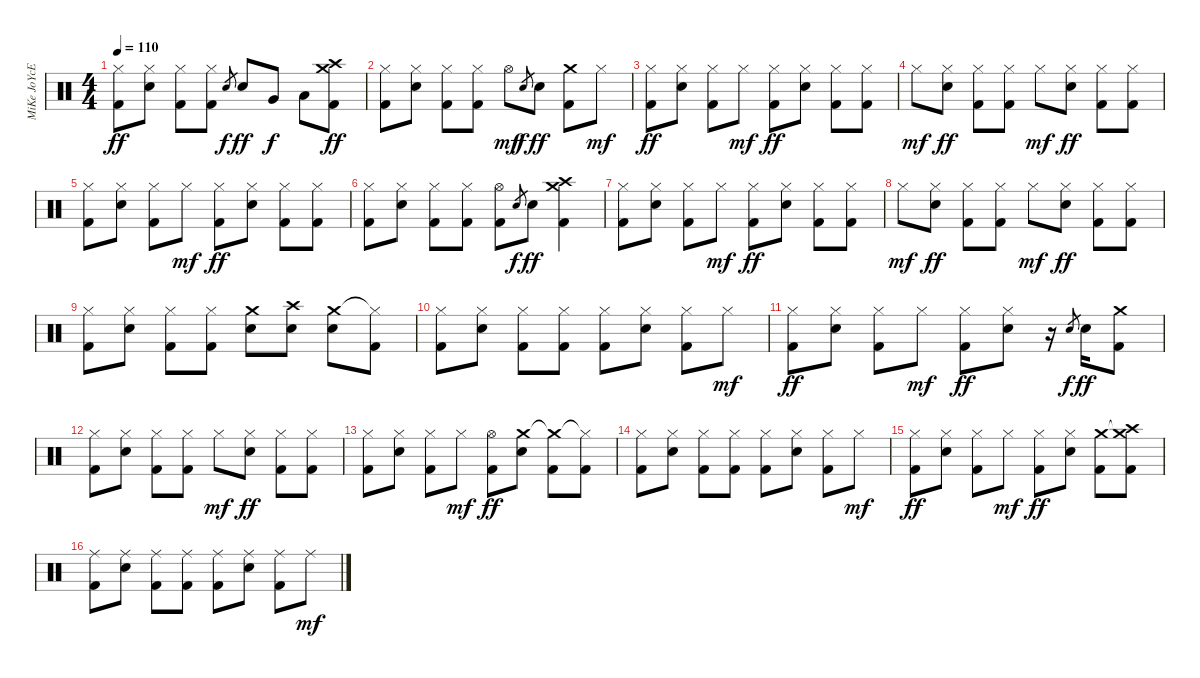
\track ("MiKe JoYcE" "MiKe JoYcE") {instrument percussion}
\staff {score}
\articulation defaults
\ts (4 4)
\tempo 110
\clef neutral
\ks c
("Hi-Hat (closed)" "Kick (hit) 2").8{dy ff} ("Hi-Hat (closed)" "Electric Snare (hit)").8 ("Hi-Hat (closed)" "Kick (hit) 2").8 ("Hi-Hat (closed)" "Kick (hit) 2").8 "Electric Snare (hit)".8{gr dy f} "Electric Snare (hit)".8{dy ff} "Very Low Tom (hit)".8{dy f} "Low Floor Tom (hit)".8 ("Crash high (hit)" "Crash medium (hit)" "Kick (hit) 2").8{dy ff} |
("Hi-Hat (closed)" "Kick (hit) 2").8 ("Hi-Hat (closed)" "Electric Snare (hit)").8 ("Hi-Hat (closed)" "Kick (hit) 2").8 ("Hi-Hat (closed)" "Kick (hit) 2").8 "Hi-Hat (open)".8{dy mf} "Electric Snare (hit)".8{gr dy f} "Electric Snare (hit)".8{dy ff} ("Crash medium (hit)" "Kick (hit) 2").8 "Hi-Hat (closed)".8{dy mf} |
("Hi-Hat (closed)" "Kick (hit) 2").8{dy ff} ("Hi-Hat (closed)" "Electric Snare (hit)").8 ("Hi-Hat (closed)" "Kick (hit) 2").8 "Hi-Hat (closed)".8{dy mf} ("Hi-Hat (closed)" "Kick (hit) 2").8{dy ff} ("Hi-Hat (closed)" "Electric Snare (hit)").8 ("Hi-Hat (closed)" "Kick (hit) 2").8 ("Hi-Hat (closed)" "Kick (hit) 2").8 |
"Hi-Hat (closed)".8{dy mf} ("Hi-Hat (closed)" "Electric Snare (hit)").8{dy ff} ("Hi-Hat (closed)" "Kick (hit) 2").8 ("Hi-Hat (closed)" "Kick (hit) 2").8 "Hi-Hat (closed)".8{dy mf} ("Hi-Hat (closed)" "Electric Snare (hit)").8{dy ff} ("Hi-Hat (closed)" "Kick (hit) 2").8 ("Hi-Hat (closed)" "Kick (hit) 2").8 |
("Hi-Hat (closed)" "Kick (hit) 2").8 ("Hi-Hat (closed)" "Electric Snare (hit)").8 ("Hi-Hat (closed)" "Kick (hit) 2").8 "Hi-Hat (closed)".8{dy mf} ("Hi-Hat (closed)" "Kick (hit) 2").8{dy ff} ("Hi-Hat (closed)" "Electric Snare (hit)").8 ("Hi-Hat (closed)" "Kick (hit) 2").8 ("Hi-Hat (closed)" "Kick (hit) 2").8 |
("Hi-Hat (closed)" "Kick (hit) 2").8 ("Hi-Hat (closed)" "Electric Snare (hit)").8 ("Hi-Hat (closed)" "Kick (hit) 2").8 ("Hi-Hat (closed)" "Kick (hit) 2").8 ("Hi-Hat (open)" "Kick (hit) 2").8 "Electric Snare (hit)".8{gr dy f} "Electric Snare (hit)".8{dy ff} ("Crash high (hit)" "Crash medium (hit)" "Kick (hit) 2").4 |
("Hi-Hat (closed)" "Kick (hit) 2").8 ("Hi-Hat (closed)" "Electric Snare (hit)").8 ("Hi-Hat (closed)" "Kick (hit) 2").8 "Hi-Hat (closed)".8{dy mf} ("Hi-Hat (closed)" "Kick (hit) 2").8{dy ff} ("Hi-Hat (closed)" "Electric Snare (hit)").8 ("Hi-Hat (closed)" "Kick (hit) 2").8 ("Hi-Hat (closed)" "Kick (hit) 2").8 |
"Hi-Hat (closed)".8{dy mf} ("Hi-Hat (closed)" "Electric Snare (hit)").8{dy ff} ("Hi-Hat (closed)" "Kick (hit) 2").8 ("Hi-Hat (closed)" "Kick (hit) 2").8 "Hi-Hat (closed)".8{dy mf} ("Hi-Hat (closed)" "Electric Snare (hit)").8{dy ff} ("Hi-Hat (closed)" "Kick (hit) 2").8 ("Hi-Hat (closed)" "Kick (hit) 2").8 |
("Hi-Hat (closed)" "Kick (hit) 2").8 ("Hi-Hat (closed)" "Electric Snare (hit)").8 ("Hi-Hat (closed)" "Kick (hit) 2").8 ("Hi-Hat (closed)" "Kick (hit) 2").8 ("Crash medium (hit)" "Electric Snare (hit)").8 ("Crash high (hit)" "Electric Snare (hit)").8 ("Crash medium (hit)" "Electric Snare (hit)").8 ("Hi-Hat (closed)"{t} "Kick (hit) 2").8 |
("Hi-Hat (closed)" "Kick (hit) 2").8 ("Hi-Hat (closed)" "Electric Snare (hit)").8 ("Hi-Hat (closed)" "Kick (hit) 2").8 ("Hi-Hat (closed)" "Kick (hit) 2").8 ("Hi-Hat (closed)" "Kick (hit) 2").8 ("Hi-Hat (closed)" "Electric Snare (hit)").8 ("Hi-Hat (closed)" "Kick (hit) 2").8 "Hi-Hat (closed)".8{dy mf} |
("Hi-Hat (closed)" "Kick (hit) 2").8{dy ff} ("Hi-Hat (closed)" "Electric Snare (hit)").8 ("Hi-Hat (closed)" "Kick (hit) 2").8 "Hi-Hat (closed)".8{dy mf} ("Hi-Hat (closed)" "Kick (hit) 2").8{dy ff} ("Hi-Hat (closed)" "Electric Snare (hit)").8 r.16 "Electric Snare (hit)".8{gr dy f} "Electric Snare (hit)".16{dy ff} ("Crash medium (hit)" "Kick (hit) 2").8 |
("Hi-Hat (closed)" "Kick (hit) 2").8 ("Hi-Hat (closed)" "Electric Snare (hit)").8 ("Hi-Hat (closed)" "Kick (hit) 2").8 ("Hi-Hat (closed)" "Kick (hit) 2").8 "Hi-Hat (closed)".8{dy mf} ("Hi-Hat (closed)" "Electric Snare (hit)").8{dy ff} ("Hi-Hat (closed)" "Kick (hit) 2").8 ("Hi-Hat (closed)" "Kick (hit) 2").8 |
("Hi-Hat (closed)" "Kick (hit) 2").8 ("Hi-Hat (closed)" "Electric Snare (hit)").8 ("Hi-Hat (closed)" "Kick (hit) 2").8 "Hi-Hat (closed)".8{dy mf} ("Hi-Hat (open)" "Kick (hit) 2").8{dy ff} ("Crash medium (hit)" "Electric Snare (hit)").8 ("Crash medium (hit)"{t} "Kick (hit) 2").8 ("Hi-Hat (closed)"{t} "Kick (hit) 2").8 |
("Hi-Hat (closed)" "Kick (hit) 2").8 ("Hi-Hat (closed)" "Electric Snare (hit)").8 ("Hi-Hat (closed)" "Kick (hit) 2").8 ("Hi-Hat (closed)" "Kick (hit) 2").8 ("Hi-Hat (closed)" "Kick (hit) 2").8 ("Hi-Hat (closed)" "Electric Snare (hit)").8 ("Hi-Hat (closed)" "Kick (hit) 2").8 "Hi-Hat (closed)".8{dy mf} |
("Hi-Hat (closed)" "Kick (hit) 2").8{dy ff} ("Hi-Hat (closed)" "Electric Snare (hit)").8 ("Hi-Hat (closed)" "Kick (hit) 2").8 "Hi-Hat (closed)".8{dy mf} ("Hi-Hat (closed)" "Kick (hit) 2").8{dy ff} ("Hi-Hat (closed)" "Electric Snare (hit)").8 ("Crash medium (hit)" "Kick (hit) 2").8 ("Crash medium (hit)"{t} "Crash high (hit)" "Kick (hit) 2").8 |
("Ride (middle)" "Kick (hit) 2").8 ("Ride (middle)" "Electric Snare (hit)").8 ("Ride (middle)" "Kick (hit) 2").8 ("Ride (middle)" "Kick (hit) 2").8 ("Ride (middle)" "Kick (hit) 2").8 ("Ride (middle)" "Electric Snare (hit)").8 ("Ride (middle)" "Kick (hit) 2").8 "Ride (middle)".8{dy mf}
